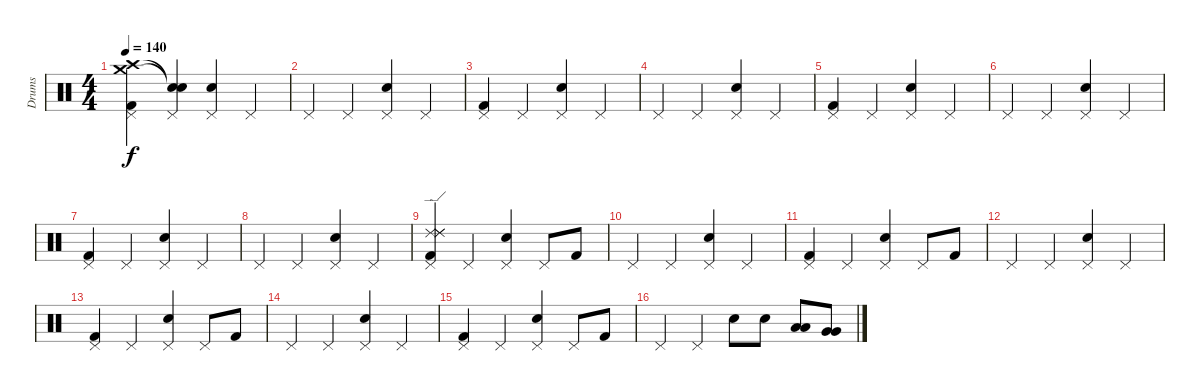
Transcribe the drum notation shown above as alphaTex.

\track ("Drums" "Drums") {instrument percussion}
\staff {score}
\articulation defaults
\ts (4 4)
\tempo 140
\clef neutral
\ks c
("Crash medium (hit)" "Pedal Hi-Hat (hit)" "Crash high (hit)" "Kick (hit) 2").4{dy f} ("Snare (hit)"{t} "Pedal Hi-Hat (hit)" "Electric Snare (hit)"{t}).4 ("Pedal Hi-Hat (hit)" "Electric Snare (hit)").4 "Pedal Hi-Hat (hit)".4 |
"Pedal Hi-Hat (hit)".4 "Pedal Hi-Hat (hit)".4 ("Pedal Hi-Hat (hit)" "Electric Snare (hit)").4 "Pedal Hi-Hat (hit)".4 |
("Pedal Hi-Hat (hit)" "Kick (hit) 2").4 "Pedal Hi-Hat (hit)".4 ("Pedal Hi-Hat (hit)" "Electric Snare (hit)").4 "Pedal Hi-Hat (hit)".4 |
"Pedal Hi-Hat (hit)".4 "Pedal Hi-Hat (hit)".4 ("Pedal Hi-Hat (hit)" "Electric Snare (hit)").4 "Pedal Hi-Hat (hit)".4 |
("Pedal Hi-Hat (hit)" "Kick (hit) 2").4 "Pedal Hi-Hat (hit)".4 ("Pedal Hi-Hat (hit)" "Electric Snare (hit)").4 "Pedal Hi-Hat (hit)".4 |
"Pedal Hi-Hat (hit)".4 "Pedal Hi-Hat (hit)".4 ("Pedal Hi-Hat (hit)" "Electric Snare (hit)").4 "Pedal Hi-Hat (hit)".4 |
("Pedal Hi-Hat (hit)" "Kick (hit) 2").4 "Pedal Hi-Hat (hit)".4 ("Pedal Hi-Hat (hit)" "Electric Snare (hit)").4 "Pedal Hi-Hat (hit)".4 |
"Pedal Hi-Hat (hit)".4 "Pedal Hi-Hat (hit)".4 ("Pedal Hi-Hat (hit)" "Electric Snare (hit)").4 "Pedal Hi-Hat (hit)".4 |
("Ride (edge) 2" "Pedal Hi-Hat (hit)" "Ride (edge) 2" "Ride (edge) 2" "Kick (hit) 2").4 "Pedal Hi-Hat (hit)".4 ("Pedal Hi-Hat (hit)" "Electric Snare (hit)").4 "Pedal Hi-Hat (hit)".8 "Kick (hit) 2".8 |
"Pedal Hi-Hat (hit)".4 "Pedal Hi-Hat (hit)".4 ("Pedal Hi-Hat (hit)" "Electric Snare (hit)").4 "Pedal Hi-Hat (hit)".4 |
("Pedal Hi-Hat (hit)" "Kick (hit) 2").4 "Pedal Hi-Hat (hit)".4 ("Pedal Hi-Hat (hit)" "Electric Snare (hit)").4 "Pedal Hi-Hat (hit)".8 "Kick (hit) 2".8 |
"Pedal Hi-Hat (hit)".4 "Pedal Hi-Hat (hit)".4 ("Pedal Hi-Hat (hit)" "Electric Snare (hit)").4 "Pedal Hi-Hat (hit)".4 |
("Pedal Hi-Hat (hit)" "Kick (hit) 2").4 "Pedal Hi-Hat (hit)".4 ("Pedal Hi-Hat (hit)" "Electric Snare (hit)").4 "Pedal Hi-Hat (hit)".8 "Kick (hit) 2".8 |
"Pedal Hi-Hat (hit)".4 "Pedal Hi-Hat (hit)".4 ("Pedal Hi-Hat (hit)" "Electric Snare (hit)").4 "Pedal Hi-Hat (hit)".4 |
("Pedal Hi-Hat (hit)" "Kick (hit) 2").4 "Pedal Hi-Hat (hit)".4 ("Pedal Hi-Hat (hit)" "Electric Snare (hit)").4 "Pedal Hi-Hat (hit)".8 "Kick (hit) 2".8 |
"Pedal Hi-Hat (hit)".4 "Pedal Hi-Hat (hit)".4 "Snare (hit) 2".8 "Snare (hit) 2".8 ("Low Tom (hit)" "Low Tom (hit)").8 ("Very Low Tom (hit)" "Very Low Tom (hit)").8
